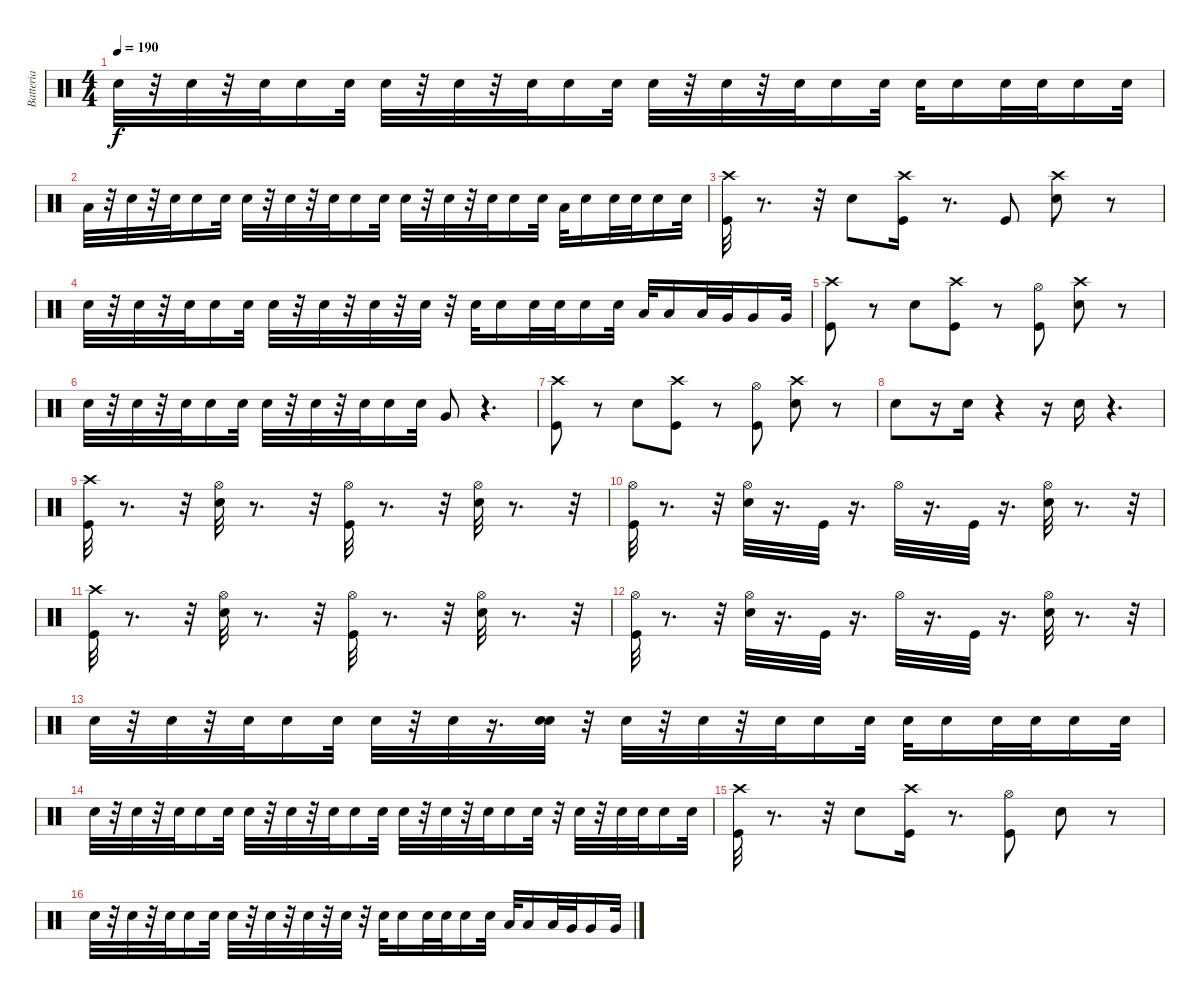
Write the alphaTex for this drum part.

\track ("Batteria" "Batteria") {instrument percussion}
\staff {score}
\articulation defaults
\ts (4 4)
\tempo 190
\clef neutral
\ks c "Snare (hit) 2".32{dy f}
r.32 "Snare (hit) 2".32 r.32 "Snare (hit) 2".32 "Snare (hit) 2".16 "Snare (hit) 2".32 "Snare (hit) 2".32 r.32 "Snare (hit) 2".32 r.32 "Snare (hit) 2".32 "Snare (hit) 2".16 "Snare (hit) 2".32 "Snare (hit) 2".32 r.32 "Snare (hit) 2".32 r.32 "Snare (hit) 2".32 "Snare (hit) 2".16 "Snare (hit) 2".32 "Snare (hit) 2".32 "Snare (hit) 2".16 "Snare (hit) 2".32 "Snare (hit) 2".32 "Snare (hit) 2".16 "Snare (hit) 2".32 |
"Low Tom (hit)".32 r.32 "Snare (hit) 2".32 r.32 "Snare (hit) 2".32 "Snare (hit) 2".16 "Snare (hit) 2".32 "Snare (hit) 2".32 r.32 "Snare (hit) 2".32 r.32 "Snare (hit) 2".32 "Snare (hit) 2".16 "Snare (hit) 2".32 "Snare (hit) 2".32 r.32 "Snare (hit) 2".32 r.32 "Snare (hit) 2".32 "Snare (hit) 2".16 "Snare (hit) 2".32 "Low Tom (hit)".32 "Snare (hit) 2".16 "Snare (hit) 2".32 "Snare (hit) 2".32 "Snare (hit) 2".16 "Snare (hit) 2".32 |
("Kick (hit)" "Crash high (hit)").32 r.8{d} r.32 "Snare (hit) 2".8 ("Kick (hit)" "Crash high (hit)").16 r.8{d} "Kick (hit)".8 ("Snare (hit) 2" "Crash high (hit)").8 r.8 |
"Snare (hit) 2".32 r.32 "Snare (hit) 2".32 r.32 "Snare (hit) 2".32 "Snare (hit) 2".16 "Snare (hit) 2".32 "Snare (hit) 2".32 r.32 "Snare (hit) 2".32 r.32 "Snare (hit) 2".32 r.32 "Snare (hit) 2".32 r.32 "Snare (hit) 2".32 "Snare (hit) 2".16 "Snare (hit) 2".32 "Snare (hit) 2".32 "Snare (hit) 2".16 "Snare (hit) 2".32 "Low Tom (hit)".32 "Low Tom (hit)".16 "Low Tom (hit)".32 "Very Low Tom (hit)".32 "Very Low Tom (hit)".16 "Very Low Tom (hit)".32 |
("Kick (hit)" "Crash high (hit)").8 r.8 "Snare (hit) 2".8 ("Crash high (hit)" "Kick (hit)").8 r.8 ("Hi-Hat (open)" "Kick (hit)").8 ("Crash high (hit)" "Snare (hit) 2").8 r.8 |
"Snare (hit) 2".32 r.32 "Snare (hit) 2".32 r.32 "Snare (hit) 2".32 "Snare (hit) 2".16 "Snare (hit) 2".32 "Snare (hit) 2".32 r.32 "Snare (hit) 2".32 r.32 "Snare (hit) 2".32 "Snare (hit) 2".16 "Snare (hit) 2".32 "Very Low Tom (hit)".8 r.4{d} |
("Kick (hit)" "Crash high (hit)").8 r.8 "Snare (hit) 2".8 ("Kick (hit)" "Crash high (hit)").8 r.8 ("Kick (hit)" "Hi-Hat (open)").8 ("Crash high (hit)" "Snare (hit) 2").8 r.8 |
"Snare (hit) 2".8 r.16 "Snare (hit) 2".16 r.4 r.16 "Snare (hit) 2".16 r.4{d} |
("Kick (hit)" "Crash high (hit)").32 r.8{d} r.32 ("Snare (hit) 2" "Hi-Hat (open)").32 r.8{d} r.32 ("Hi-Hat (open)" "Kick (hit)").32 r.8{d} r.32 ("Snare (hit) 2" "Hi-Hat (open)").32 r.8{d} r.32 |
("Kick (hit)" "Hi-Hat (open)").32 r.8{d} r.32 ("Snare (hit) 2" "Hi-Hat (open)").32 r.16{d} "Kick (hit)".32 r.16{d} "Hi-Hat (open)".32 r.16{d} "Kick (hit)".32 r.16{d} ("Snare (hit) 2" "Hi-Hat (open)").32 r.8{d} r.32 |
("Kick (hit)" "Crash high (hit)").32 r.8{d} r.32 ("Hi-Hat (open)" "Snare (hit) 2").32 r.8{d} r.32 ("Kick (hit)" "Hi-Hat (open)").32 r.8{d} r.32 ("Snare (hit) 2" "Hi-Hat (open)").32 r.8{d} r.32 |
("Hi-Hat (open)" "Kick (hit)").32 r.8{d} r.32 ("Snare (hit) 2" "Hi-Hat (open)").32 r.16{d} "Kick (hit)".32 r.16{d} "Hi-Hat (open)".32 r.16{d} "Kick (hit)".32 r.16{d} ("Hi-Hat (open)" "Snare (hit) 2").32 r.8{d} r.32 |
"Snare (hit) 2".32 r.32 "Snare (hit) 2".32 r.32 "Snare (hit) 2".32 "Snare (hit) 2".16 "Snare (hit) 2".32 "Snare (hit) 2".32 r.32 "Snare (hit) 2".32 r.16{d} ("Snare (hit) 2" "Snare (hit) 2").32 r.32 "Snare (hit) 2".32 r.32 "Snare (hit) 2".32 r.32 "Snare (hit) 2".32 "Snare (hit) 2".16 "Snare (hit) 2".32 "Snare (hit) 2".32 "Snare (hit) 2".16 "Snare (hit) 2".32 "Snare (hit) 2".32 "Snare (hit) 2".16 "Snare (hit) 2".32 |
"Snare (hit) 2".32 r.32 "Snare (hit) 2".32 r.32 "Snare (hit) 2".32 "Snare (hit) 2".16 "Snare (hit) 2".32 "Snare (hit) 2".32 r.32 "Snare (hit) 2".32 r.32 "Snare (hit) 2".32 "Snare (hit) 2".16 "Snare (hit) 2".32 "Snare (hit) 2".32 r.32 "Snare (hit) 2".32 r.32 "Snare (hit) 2".32 "Snare (hit) 2".16 "Snare (hit) 2".32 r.32 "Snare (hit) 2".32 r.32 "Snare (hit) 2".32 "Snare (hit) 2".32 "Snare (hit) 2".16 "Snare (hit) 2".32 |
("Crash high (hit)" "Kick (hit)").32 r.8{d} r.32 "Snare (hit) 2".8 ("Kick (hit)" "Crash high (hit)").16 r.8{d} ("Hi-Hat (open)" "Kick (hit)").8 "Snare (hit) 2".8 r.8 |
"Snare (hit) 2".32 r.32 "Snare (hit) 2".32 r.32 "Snare (hit) 2".32 "Snare (hit) 2".16 "Snare (hit) 2".32 "Snare (hit) 2".32 r.32 "Snare (hit) 2".32 r.32 "Snare (hit) 2".32 r.32 "Snare (hit) 2".32 r.32 "Snare (hit) 2".32 "Snare (hit) 2".16 "Snare (hit) 2".32 "Snare (hit) 2".32 "Snare (hit) 2".16 "Snare (hit) 2".32 "Low Tom (hit)".32 "Low Tom (hit)".16 "Low Tom (hit)".32 "Very Low Tom (hit)".32 "Very Low Tom (hit)".16 "Very Low Tom (hit)".32
